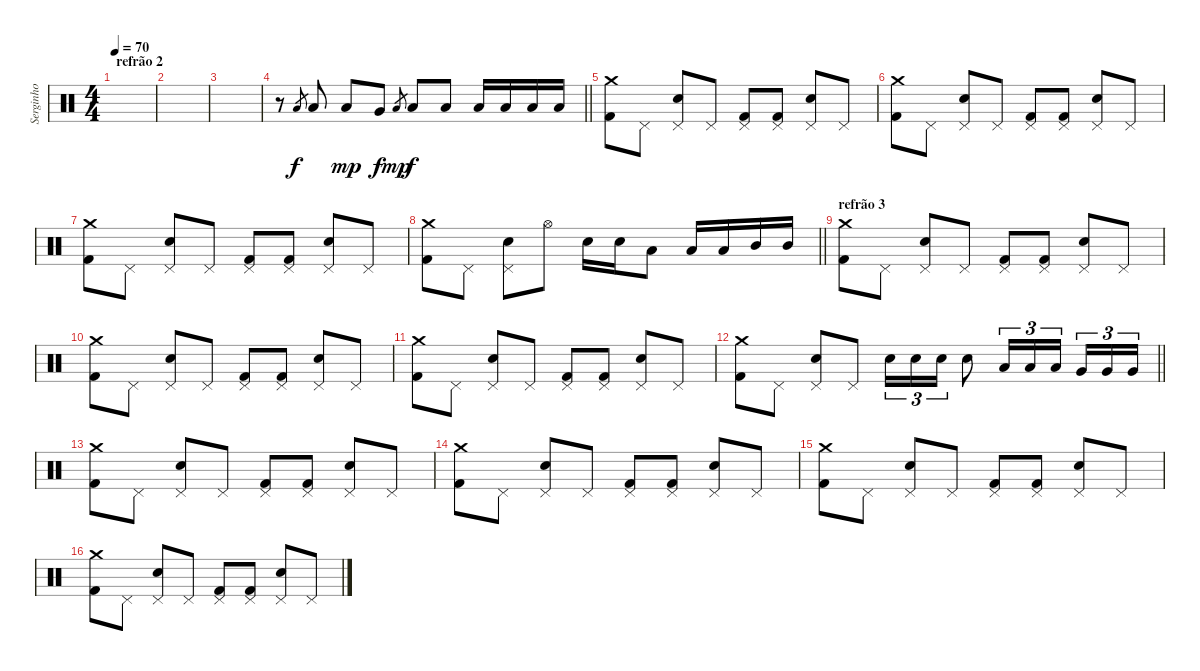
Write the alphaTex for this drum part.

\track ("Serginho" "Serginho") {instrument percussion}
\staff {score}
\articulation defaults
\ts (4 4)
\section ("" "refrão 2")
\tempo 70
\clef neutral
\ks c
|
|
|
\barLineRight lightlight
r.8 "Low Tom (hit)".8{gr} "Low Tom (hit)".8 "Low Tom (hit)".8{dy mp} "Very Low Tom (hit)".8{dy f} "Low Tom (hit)".8{gr dy mp} "Low Tom (hit)".8{dy f} "Low Tom (hit)".8 "Low Tom (hit)".16 "Low Tom (hit)".16 "Low Tom (hit)".16 "Low Tom (hit)".16 |
("Crash medium (hit)" "Kick (hit) 2").8 "Pedal Hi-Hat (hit)".8 ("Pedal Hi-Hat (hit)" "Snare (hit) 2").8 "Pedal Hi-Hat (hit)".8 ("Pedal Hi-Hat (hit)" "Kick (hit) 2").8 ("Pedal Hi-Hat (hit)" "Kick (hit) 2").8 ("Pedal Hi-Hat (hit)" "Snare (hit) 2").8 "Pedal Hi-Hat (hit)".8 |
("Crash medium (hit)" "Kick (hit) 2").8 "Pedal Hi-Hat (hit)".8 ("Pedal Hi-Hat (hit)" "Snare (hit) 2").8 "Pedal Hi-Hat (hit)".8 ("Pedal Hi-Hat (hit)" "Kick (hit) 2").8 ("Pedal Hi-Hat (hit)" "Kick (hit) 2").8 ("Pedal Hi-Hat (hit)" "Snare (hit) 2").8 "Pedal Hi-Hat (hit)".8 |
("Crash medium (hit)" "Kick (hit) 2").8 "Pedal Hi-Hat (hit)".8 ("Pedal Hi-Hat (hit)" "Snare (hit) 2").8 "Pedal Hi-Hat (hit)".8 ("Pedal Hi-Hat (hit)" "Kick (hit) 2").8 ("Pedal Hi-Hat (hit)" "Kick (hit) 2").8 ("Pedal Hi-Hat (hit)" "Snare (hit) 2").8 "Pedal Hi-Hat (hit)".8 |
\barLineRight lightlight
("Crash medium (hit)" "Kick (hit) 2").8 "Pedal Hi-Hat (hit)".8 ("Pedal Hi-Hat (hit)" "Snare (hit) 2").8 "Hi-Hat (open)".8 "Snare (hit) 2".16 "Snare (hit) 2".16 "Low Tom (hit)".8 "Low Tom (hit)".16 "Low Tom (hit)".16 "Mid Tom (hit)".16 "Mid Tom (hit)".16 |
\section ("" "refrão 3")
("Crash medium (hit)" "Kick (hit) 2").8 "Pedal Hi-Hat (hit)".8 ("Pedal Hi-Hat (hit)" "Snare (hit) 2").8 "Pedal Hi-Hat (hit)".8 ("Pedal Hi-Hat (hit)" "Kick (hit) 2").8 ("Pedal Hi-Hat (hit)" "Kick (hit) 2").8 ("Pedal Hi-Hat (hit)" "Snare (hit) 2").8 "Pedal Hi-Hat (hit)".8 |
("Crash medium (hit)" "Kick (hit) 2").8 "Pedal Hi-Hat (hit)".8 ("Pedal Hi-Hat (hit)" "Snare (hit) 2").8 "Pedal Hi-Hat (hit)".8 ("Pedal Hi-Hat (hit)" "Kick (hit) 2").8 ("Pedal Hi-Hat (hit)" "Kick (hit) 2").8 ("Pedal Hi-Hat (hit)" "Snare (hit) 2").8 "Pedal Hi-Hat (hit)".8 |
("Crash medium (hit)" "Kick (hit) 2").8 "Pedal Hi-Hat (hit)".8 ("Pedal Hi-Hat (hit)" "Snare (hit) 2").8 "Pedal Hi-Hat (hit)".8 ("Pedal Hi-Hat (hit)" "Kick (hit) 2").8 ("Pedal Hi-Hat (hit)" "Kick (hit) 2").8 ("Pedal Hi-Hat (hit)" "Snare (hit) 2").8 "Pedal Hi-Hat (hit)".8 |
\barLineRight lightlight
("Crash medium (hit)" "Kick (hit) 2").8 "Pedal Hi-Hat (hit)".8 ("Pedal Hi-Hat (hit)" "Snare (hit) 2").8 "Pedal Hi-Hat (hit)".8 "Snare (hit) 2".16{tu (3 2)} "Snare (hit) 2".16{tu (3 2)} "Snare (hit) 2".16{tu (3 2)} "Snare (hit) 2".8 "Low Tom (hit)".16{tu (3 2)} "Low Tom (hit)".16{tu (3 2)} "Low Tom (hit)".16{tu (3 2) beam splitsecondary} "Very Low Tom (hit)".16{tu (3 2)} "Very Low Tom (hit)".16{tu (3 2)} "Very Low Tom (hit)".16{tu (3 2)} |
("Crash medium (hit)" "Kick (hit) 2").8 "Pedal Hi-Hat (hit)".8 ("Pedal Hi-Hat (hit)" "Snare (hit) 2").8 "Pedal Hi-Hat (hit)".8 ("Pedal Hi-Hat (hit)" "Kick (hit) 2").8 ("Pedal Hi-Hat (hit)" "Kick (hit) 2").8 ("Pedal Hi-Hat (hit)" "Snare (hit) 2").8 "Pedal Hi-Hat (hit)".8 |
("Crash medium (hit)" "Kick (hit) 2").8{volume 0} "Pedal Hi-Hat (hit)".8 ("Pedal Hi-Hat (hit)" "Snare (hit) 2").8 "Pedal Hi-Hat (hit)".8 ("Pedal Hi-Hat (hit)" "Kick (hit) 2").8 ("Pedal Hi-Hat (hit)" "Kick (hit) 2").8 ("Pedal Hi-Hat (hit)" "Snare (hit) 2").8 "Pedal Hi-Hat (hit)".8 |
("Crash medium (hit)" "Kick (hit) 2").8 "Pedal Hi-Hat (hit)".8 ("Pedal Hi-Hat (hit)" "Snare (hit) 2").8 "Pedal Hi-Hat (hit)".8 ("Pedal Hi-Hat (hit)" "Kick (hit) 2").8 ("Pedal Hi-Hat (hit)" "Kick (hit) 2").8 ("Pedal Hi-Hat (hit)" "Snare (hit) 2").8 "Pedal Hi-Hat (hit)".8 |
("Crash medium (hit)" "Kick (hit) 2").8 "Pedal Hi-Hat (hit)".8 ("Pedal Hi-Hat (hit)" "Snare (hit) 2").8 "Pedal Hi-Hat (hit)".8 ("Pedal Hi-Hat (hit)" "Kick (hit) 2").8 ("Pedal Hi-Hat (hit)" "Kick (hit) 2").8 ("Pedal Hi-Hat (hit)" "Snare (hit) 2").8 "Pedal Hi-Hat (hit)".8
